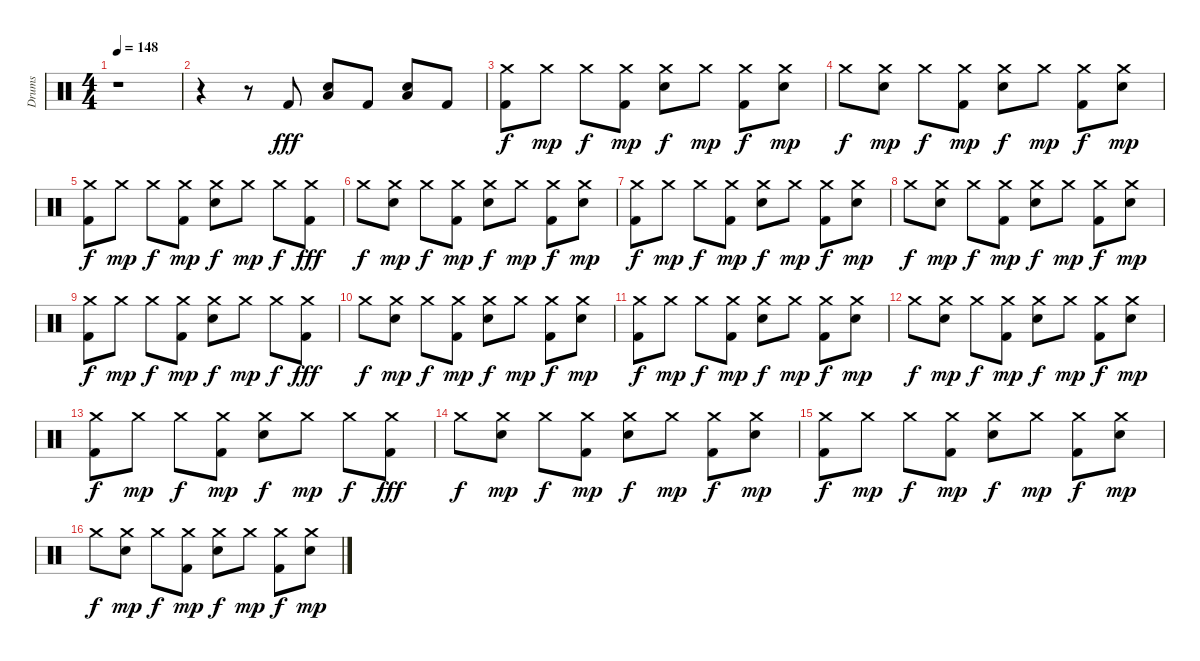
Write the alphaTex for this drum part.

\track ("Drums" "Drums") {instrument percussion}
\staff {score}
\articulation defaults
\ts (4 4)
\tempo 148
\clef neutral
\ks c
r.1{dy f} |
r.4 r.8 "Kick (hit) 2".8{dy fff} ("Low Tom (hit)" "Snare (hit) 2").8 "Kick (hit) 2".8 ("Low Tom (hit)" "Snare (hit) 2").8 "Kick (hit) 2".8 |
("Crash medium (hit)" "Kick (hit) 2").8{dy f} "Crash medium (hit)".8{dy mp} "Crash medium (hit)".8{dy f} ("Crash medium (hit)" "Kick (hit) 2").8{dy mp} ("Crash medium (hit)" "Snare (hit) 2").8{dy f} "Crash medium (hit)".8{dy mp} ("Crash medium (hit)" "Kick (hit) 2").8{dy f} ("Crash medium (hit)" "Snare (hit) 2").8{dy mp} |
"Crash medium (hit)".8{dy f} ("Crash medium (hit)" "Snare (hit) 2").8{dy mp} "Crash medium (hit)".8{dy f} ("Crash medium (hit)" "Kick (hit) 2").8{dy mp} ("Crash medium (hit)" "Snare (hit) 2").8{dy f} "Crash medium (hit)".8{dy mp} ("Crash medium (hit)" "Kick (hit) 2").8{dy f} ("Crash medium (hit)" "Snare (hit) 2").8{dy mp} |
("Crash medium (hit)" "Kick (hit) 2").8{dy f} "Crash medium (hit)".8{dy mp} "Crash medium (hit)".8{dy f} ("Crash medium (hit)" "Kick (hit) 2").8{dy mp} ("Crash medium (hit)" "Snare (hit) 2").8{dy f} "Crash medium (hit)".8{dy mp} "Crash medium (hit)".8{dy f} ("Crash medium (hit)" "Kick (hit) 2").8{dy fff} |
"Crash medium (hit)".8{dy f} ("Crash medium (hit)" "Snare (hit) 2").8{dy mp} "Crash medium (hit)".8{dy f} ("Crash medium (hit)" "Kick (hit) 2").8{dy mp} ("Crash medium (hit)" "Snare (hit) 2").8{dy f} "Crash medium (hit)".8{dy mp} ("Crash medium (hit)" "Kick (hit) 2").8{dy f} ("Crash medium (hit)" "Snare (hit) 2").8{dy mp} |
("Crash medium (hit)" "Kick (hit) 2").8{dy f} "Crash medium (hit)".8{dy mp} "Crash medium (hit)".8{dy f} ("Crash medium (hit)" "Kick (hit) 2").8{dy mp} ("Crash medium (hit)" "Snare (hit) 2").8{dy f} "Crash medium (hit)".8{dy mp} ("Crash medium (hit)" "Kick (hit) 2").8{dy f} ("Crash medium (hit)" "Snare (hit) 2").8{dy mp} |
"Crash medium (hit)".8{dy f} ("Crash medium (hit)" "Snare (hit) 2").8{dy mp} "Crash medium (hit)".8{dy f} ("Crash medium (hit)" "Kick (hit) 2").8{dy mp} ("Crash medium (hit)" "Snare (hit) 2").8{dy f} "Crash medium (hit)".8{dy mp} ("Crash medium (hit)" "Kick (hit) 2").8{dy f} ("Crash medium (hit)" "Snare (hit) 2").8{dy mp} |
("Crash medium (hit)" "Kick (hit) 2").8{dy f} "Crash medium (hit)".8{dy mp} "Crash medium (hit)".8{dy f} ("Crash medium (hit)" "Kick (hit) 2").8{dy mp} ("Crash medium (hit)" "Snare (hit) 2").8{dy f} "Crash medium (hit)".8{dy mp} "Crash medium (hit)".8{dy f} ("Crash medium (hit)" "Kick (hit) 2").8{dy fff} |
"Crash medium (hit)".8{dy f} ("Crash medium (hit)" "Snare (hit) 2").8{dy mp} "Crash medium (hit)".8{dy f} ("Crash medium (hit)" "Kick (hit) 2").8{dy mp} ("Crash medium (hit)" "Snare (hit) 2").8{dy f} "Crash medium (hit)".8{dy mp} ("Crash medium (hit)" "Kick (hit) 2").8{dy f} ("Crash medium (hit)" "Snare (hit) 2").8{dy mp} |
("Crash medium (hit)" "Kick (hit) 2").8{dy f} "Crash medium (hit)".8{dy mp} "Crash medium (hit)".8{dy f} ("Crash medium (hit)" "Kick (hit) 2").8{dy mp} ("Crash medium (hit)" "Snare (hit) 2").8{dy f} "Crash medium (hit)".8{dy mp} ("Crash medium (hit)" "Kick (hit) 2").8{dy f} ("Crash medium (hit)" "Snare (hit) 2").8{dy mp} |
"Crash medium (hit)".8{dy f} ("Crash medium (hit)" "Snare (hit) 2").8{dy mp} "Crash medium (hit)".8{dy f} ("Crash medium (hit)" "Kick (hit) 2").8{dy mp} ("Crash medium (hit)" "Snare (hit) 2").8{dy f} "Crash medium (hit)".8{dy mp} ("Crash medium (hit)" "Kick (hit) 2").8{dy f} ("Crash medium (hit)" "Snare (hit) 2").8{dy mp} |
("Crash medium (hit)" "Kick (hit) 2").8{dy f} "Crash medium (hit)".8{dy mp} "Crash medium (hit)".8{dy f} ("Crash medium (hit)" "Kick (hit) 2").8{dy mp} ("Crash medium (hit)" "Snare (hit) 2").8{dy f} "Crash medium (hit)".8{dy mp} "Crash medium (hit)".8{dy f} ("Crash medium (hit)" "Kick (hit) 2").8{dy fff} |
"Crash medium (hit)".8{dy f} ("Crash medium (hit)" "Snare (hit) 2").8{dy mp} "Crash medium (hit)".8{dy f} ("Crash medium (hit)" "Kick (hit) 2").8{dy mp} ("Crash medium (hit)" "Snare (hit) 2").8{dy f} "Crash medium (hit)".8{dy mp} ("Crash medium (hit)" "Kick (hit) 2").8{dy f} ("Crash medium (hit)" "Snare (hit) 2").8{dy mp} |
("Crash medium (hit)" "Kick (hit) 2").8{dy f} "Crash medium (hit)".8{dy mp} "Crash medium (hit)".8{dy f} ("Crash medium (hit)" "Kick (hit) 2").8{dy mp} ("Crash medium (hit)" "Snare (hit) 2").8{dy f} "Crash medium (hit)".8{dy mp} ("Crash medium (hit)" "Kick (hit) 2").8{dy f} ("Crash medium (hit)" "Snare (hit) 2").8{dy mp} |
"Crash medium (hit)".8{dy f} ("Crash medium (hit)" "Snare (hit) 2").8{dy mp} "Crash medium (hit)".8{dy f} ("Crash medium (hit)" "Kick (hit) 2").8{dy mp} ("Crash medium (hit)" "Snare (hit) 2").8{dy f} "Crash medium (hit)".8{dy mp} ("Crash medium (hit)" "Kick (hit) 2").8{dy f} ("Crash medium (hit)" "Snare (hit) 2").8{dy mp}
